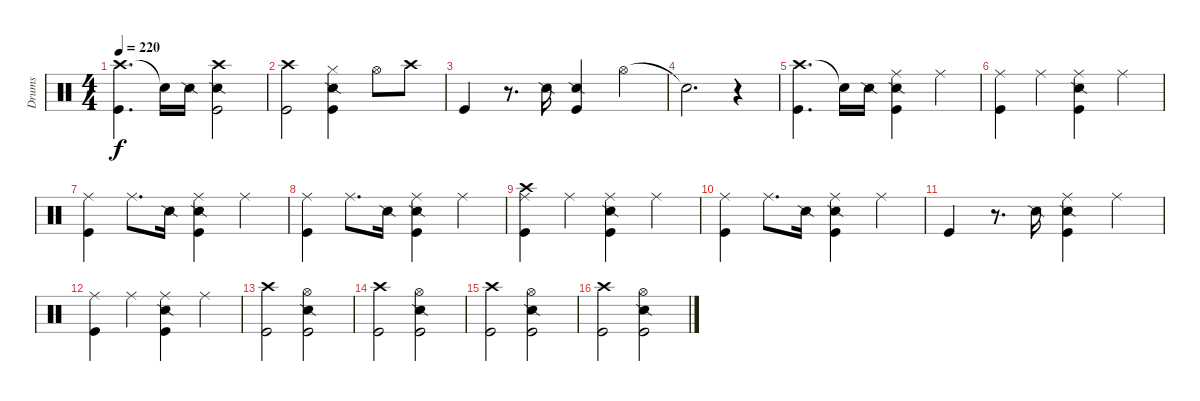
\track ("Drums" "Drums") {instrument percussion}
\staff {score}
\articulation defaults
\ts (4 4)
\tempo 220
\clef neutral
\ks c
("Crash high (hit)" "Kick (hit)").4{d dy f} "Snare (hit)"{t}.16 "Snare (side stick) 2".16 ("Crash high (hit)" "Snare (side stick) 2" "Kick (hit)").2 |
("Crash high (hit)" "Kick (hit)").2 ("Hi-Hat (closed)" "Snare (side stick) 2" "Kick (hit)").4 "Hi-Hat (open)".8 "Crash high (hit)".8 |
"Kick (hit)".4 r.8{d} "Snare (side stick) 2".16 ("Snare (side stick) 2" "Kick (hit)").4 "Hi-Hat (open)".4 |
"Snare (hit)"{t}.2{d} r.4 |
("Crash high (hit)" "Kick (hit)").4{d} "Snare (hit)"{t}.16 "Snare (side stick) 2".16 ("Ride (middle)" "Snare (side stick) 2" "Kick (hit)").4 "Ride (middle)".4 |
("Ride (middle)" "Kick (hit)").4 "Ride (middle)".4 ("Ride (middle)" "Snare (side stick) 2" "Kick (hit)").4 "Ride (middle)".4 |
("Ride (middle)" "Kick (hit)").4 "Ride (middle)".8{d} "Snare (side stick) 2".16 ("Ride (middle)" "Snare (side stick) 2" "Kick (hit)").4 "Ride (middle)".4 |
("Ride (middle)" "Kick (hit)").4 "Ride (middle)".8{d} "Snare (side stick) 2".16 ("Ride (middle)" "Snare (side stick) 2" "Kick (hit)").4 "Ride (middle)".4 |
("Ride (middle)" "Crash high (hit)" "Kick (hit)").4 "Ride (middle)".4 ("Ride (middle)" "Snare (side stick) 2" "Kick (hit)").4 "Ride (middle)".4 |
("Ride (middle)" "Kick (hit)").4 "Ride (middle)".8{d} "Snare (side stick) 2".16 ("Ride (middle)" "Snare (side stick) 2" "Kick (hit)").4 "Ride (middle)".4 |
"Kick (hit)".4 r.8{d} "Snare (side stick) 2".16 ("Ride (middle)" "Snare (side stick) 2" "Kick (hit)").4 "Ride (middle)".4 |
("Ride (middle)" "Kick (hit)").4 "Ride (middle)".4 ("Ride (middle)" "Snare (side stick) 2" "Kick (hit)").4 "Ride (middle)".4 |
("Crash high (hit)" "Kick (hit)").2 ("Hi-Hat (open)" "Snare (side stick) 2" "Kick (hit)").2 |
("Crash high (hit)" "Kick (hit)").2 ("Hi-Hat (open)" "Snare (side stick) 2" "Kick (hit)").2 |
("Crash high (hit)" "Kick (hit)").2 ("Hi-Hat (open)" "Snare (side stick) 2" "Kick (hit)").2 |
("Crash high (hit)" "Kick (hit)").2 ("Hi-Hat (open)" "Snare (side stick) 2" "Kick (hit)").2
